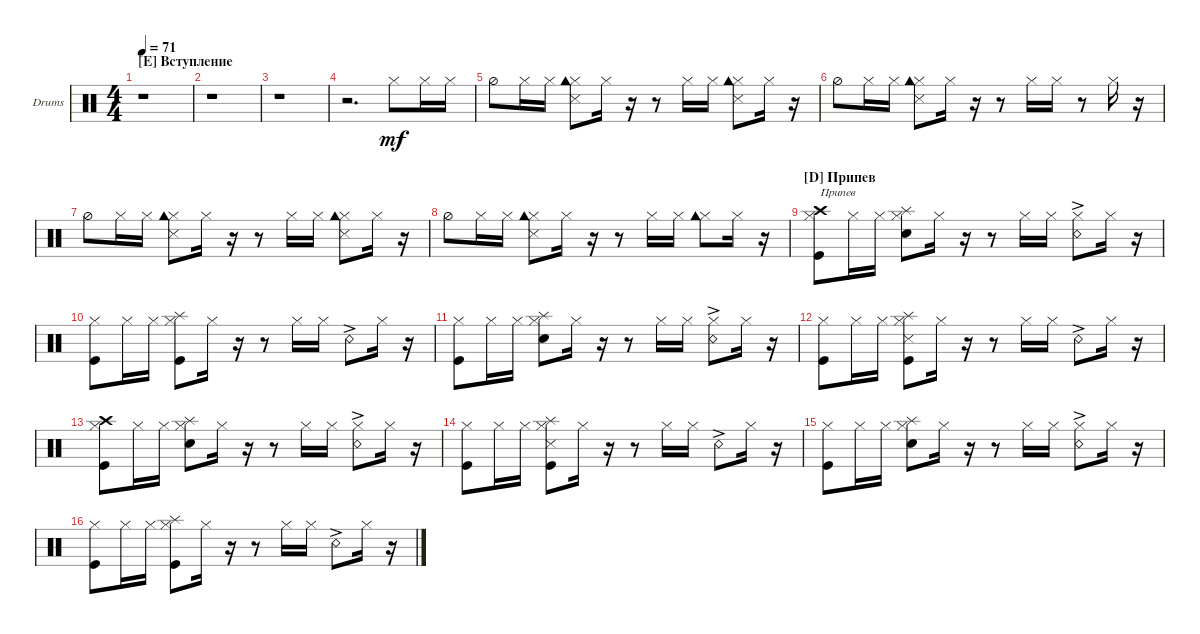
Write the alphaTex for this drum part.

\defaultSystemsLayout 4
\bracketExtendMode groupsimilarinstruments
\firstSystemTrackNameOrientation horizontal
\otherSystemsTrackNameOrientation horizontal
\track ("Drumkit" "Drums") {instrument percussion}
\staff {score}
\articulation defaults
\ts (4 4)
\section ("E" "Вступление")
\tempo 71
\clef neutral
\scale
0.474178
\ks c
r.1{dy mf} |
\scale
0.262911 r.1 |
\scale
0.262911 r.1 |
\scale
0.333333 r.2{d} "Hi-Hat (closed)".8 "Hi-Hat (closed)".16 "Hi-Hat (closed)".16 |
\scale
0.333333 "Hi-Hat (half)".8 "Hi-Hat (closed)".16 "Hi-Hat (closed)".16 ("Hi-Hat (closed)" "Snare (side stick) 3" "Cowbell high (hit)").8 "Hi-Hat (closed)".16 r.16 r.8 "Hi-Hat (closed)".16 "Hi-Hat (closed)".16 ("Snare (side stick) 3" "Hi-Hat (closed)" "Cowbell high (hit)").8 "Hi-Hat (closed)".16 r.16 |
\scale
0.333333 "Hi-Hat (half)".8 "Hi-Hat (closed)".16 "Hi-Hat (closed)".16 ("Hi-Hat (closed)" "Snare (side stick) 3" "Cowbell high (hit)").8 "Hi-Hat (closed)".16 r.16 r.8 "Hi-Hat (closed)".16 "Hi-Hat (closed)".16 r.8 "Hi-Hat (closed)".16 r.16 |
"Hi-Hat (half)".8 "Hi-Hat (closed)".16 "Hi-Hat (closed)".16 ("Hi-Hat (closed)" "Snare (side stick) 3" "Cowbell high (hit)").8 "Hi-Hat (closed)".16 r.16 r.8 "Hi-Hat (closed)".16 "Hi-Hat (closed)".16 ("Snare (side stick) 3" "Hi-Hat (closed)" "Cowbell high (hit)").8 "Hi-Hat (closed)".16 r.16 |
"Hi-Hat (half)".8 "Hi-Hat (closed)".16 "Hi-Hat (closed)".16 ("Hi-Hat (closed)" "Snare (side stick) 3" "Cowbell high (hit)").8 "Hi-Hat (closed)".16 r.16 r.8 "Hi-Hat (closed)".16 "Hi-Hat (closed)".16 ("Hi-Hat (closed)" "Cowbell high (hit)").8 "Hi-Hat (closed)".16 r.16 |
\section ("D" "Припев")
("Hi-Hat (closed)" "Crash high (hit)" "Kick (hit)").8{txt "Припев"} "Hi-Hat (closed)".16 "Hi-Hat (closed)".16 ("Hi-Hat (closed)" "Snare (hit) 2" "Splash (hit)").8 "Hi-Hat (closed)".16 r.16 r.8 "Hi-Hat (closed)".16 "Hi-Hat (closed)".16 ("Hi-Hat (closed)" "Snare (rim shot)"{ac}).8 "Hi-Hat (closed)".16 r.16 |
("Hi-Hat (closed)" "Kick (hit)").8 "Hi-Hat (closed)".16 "Hi-Hat (closed)".16 ("Hi-Hat (closed)" "Splash (hit)" "Kick (hit)").8 "Hi-Hat (closed)".16 r.16 r.8 "Hi-Hat (closed)".16 "Hi-Hat (closed)".16 "Snare (rim shot)"{ac}.8 "Hi-Hat (closed)".16 r.16 |
("Hi-Hat (closed)" "Kick (hit)").8 "Hi-Hat (closed)".16 "Hi-Hat (closed)".16 ("Hi-Hat (closed)" "Snare (hit) 2" "Splash (hit)").8 "Hi-Hat (closed)".16 r.16 r.8 "Hi-Hat (closed)".16 "Hi-Hat (closed)".16 ("Hi-Hat (closed)" "Snare (rim shot)"{ac}).8 "Hi-Hat (closed)".16 r.16 |
("Hi-Hat (closed)" "Kick (hit)").8 "Hi-Hat (closed)".16 "Hi-Hat (closed)".16 ("Hi-Hat (closed)" "Snare (side stick) 3" "Splash (hit)" "Kick (hit)").8 "Hi-Hat (closed)".16 r.16 r.8 "Hi-Hat (closed)".16 "Hi-Hat (closed)".16 "Snare (rim shot)"{ac}.8 "Hi-Hat (closed)".16 r.16 |
("Hi-Hat (closed)" "Crash high (hit)" "Kick (hit)").8 "Hi-Hat (closed)".16 "Hi-Hat (closed)".16 ("Hi-Hat (closed)" "Snare (hit) 2" "Splash (hit)").8 "Hi-Hat (closed)".16 r.16 r.8 "Hi-Hat (closed)".16 "Hi-Hat (closed)".16 ("Hi-Hat (closed)" "Snare (rim shot)"{ac}).8 "Hi-Hat (closed)".16 r.16 |
("Hi-Hat (closed)" "Kick (hit)").8 "Hi-Hat (closed)".16 "Hi-Hat (closed)".16 ("Hi-Hat (closed)" "Snare (side stick) 3" "Splash (hit)" "Kick (hit)").8 "Hi-Hat (closed)".16 r.16 r.8 "Hi-Hat (closed)".16 "Hi-Hat (closed)".16 "Snare (rim shot)"{ac}.8 "Hi-Hat (closed)".16 r.16 |
("Hi-Hat (closed)" "Kick (hit)").8 "Hi-Hat (closed)".16 "Hi-Hat (closed)".16 ("Hi-Hat (closed)" "Snare (hit) 2" "Splash (hit)").8 "Hi-Hat (closed)".16 r.16 r.8 "Hi-Hat (closed)".16 "Hi-Hat (closed)".16 ("Hi-Hat (closed)" "Snare (rim shot)"{ac}).8 "Hi-Hat (closed)".16 r.16 |
("Hi-Hat (closed)" "Kick (hit)").8 "Hi-Hat (closed)".16 "Hi-Hat (closed)".16 ("Hi-Hat (closed)" "Splash (hit)" "Kick (hit)").8 "Hi-Hat (closed)".16 r.16 r.8 "Hi-Hat (closed)".16 "Hi-Hat (closed)".16 "Snare (rim shot)"{ac}.8 "Hi-Hat (closed)".16 r.16
